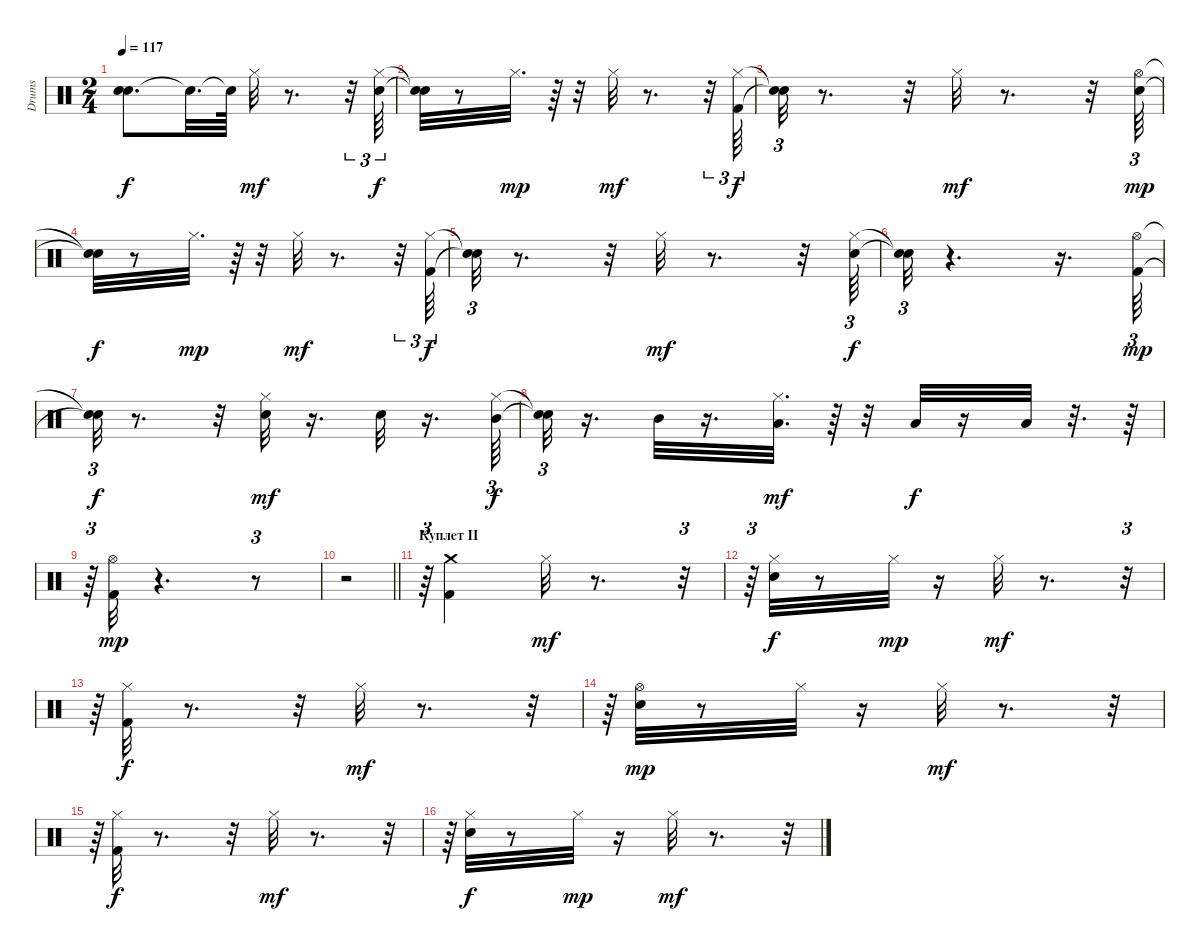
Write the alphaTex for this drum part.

\track ("Drums" "Drums") {instrument percussion}
\staff {score}
\articulation defaults
\ts (2 4)
\tempo 117
\clef neutral
\ks c
("Snare (hit)"{t} "Snare (hit)"{t}).8{d dy f} "Snare (hit)"{t}.32{d} "Snare (hit)"{t}.64 "Hi-Hat (closed)".32{dy mf} r.8{d} r.32{tu (3 2)} ("Electric Snare (hit)" "Hi-Hat (closed)").64{tu (3 2) dy f} |
("Snare (hit)"{t} "Snare (hit)"{t}).32 r.8 "Hi-Hat (closed)".32{d dy mp} r.64 r.32 "Hi-Hat (closed)".32{dy mf} r.8{d} r.32{tu (3 2)} ("Kick (hit) 2" "Hi-Hat (closed)").64{tu (3 2) dy f} |
("Snare (hit)"{t} "Snare (hit)"{t}).32{tu (3 2)} r.8{d} r.32 "Hi-Hat (closed)".32{dy mf} r.8{d} r.32 ("Electric Snare (hit)" "Hi-Hat (open)").64{tu (3 2) dy mp} |
("Snare (hit)"{t} "Snare (hit)"{t}).32{dy f} r.8 "Hi-Hat (closed)".32{d dy mp} r.64 r.32 "Hi-Hat (closed)".32{dy mf} r.8{d} r.32{tu (3 2)} ("Kick (hit) 2" "Hi-Hat (closed)").64{tu (3 2) dy f} |
("Snare (hit)"{t} "Snare (hit)"{t}).32{tu (3 2)} r.8{d} r.32 "Hi-Hat (closed)".32{dy mf} r.8{d} r.32 ("Electric Snare (hit)" "Hi-Hat (closed)").64{tu (3 2) dy f} |
("Snare (hit)"{t} "Snare (hit)"{t}).32{tu (3 2)} r.4{d} r.16{d} ("Kick (hit) 2" "Hi-Hat (open)").64{tu (3 2) dy mp} |
("Snare (hit)"{t} "Snare (hit)"{t}).32{tu (3 2) dy f} r.8{d} r.32 ("Electric Snare (hit)" "Hi-Hat (closed)").32{dy mf} r.16{d} "Electric Snare (hit)".32 r.16{d} ("Hi-Hat (closed)" "Mid Tom (hit)").64{tu (3 2) dy f} |
("Snare (hit)"{t} "Snare (hit)"{t}).32{tu (3 2)} r.16{d} "Mid Tom (hit)".32 r.16{d} ("Hi-Hat (closed)" "Low Tom (hit)").32{d dy mf} r.64 r.32 "Low Tom (hit)".32{dy f} r.16 "Low Tom (hit)".32 r.32{d} r.64 |
r.64{tu (3 2)} ("Kick (hit) 2" "Hi-Hat (open)").32{dy mp} r.4{d} r.8{tu (3 2)} |
\barLineRight lightlight
r.2 |
\section ("" "Куплет II")
r.64{tu (3 2)} ("Kick (hit) 2" "Crash medium (hit)").4 "Hi-Hat (closed)".32{dy mf} r.8{d} r.32{tu (3 2)} |
r.64{tu (3 2)} ("Electric Snare (hit)" "Hi-Hat (closed)").32{dy f} r.8 "Hi-Hat (closed)".32{dy mp} r.16 "Hi-Hat (closed)".32{dy mf} r.8{d} r.32{tu (3 2)} |
r.64{tu (3 2)} ("Kick (hit) 2" "Hi-Hat (closed)").32{dy f} r.8{d} r.32 "Hi-Hat (closed)".32{dy mf} r.8{d} r.32{tu (3 2)} |
r.64{tu (3 2)} ("Electric Snare (hit)" "Hi-Hat (open)").32{dy mp} r.8 "Hi-Hat (closed)".32 r.16 "Hi-Hat (closed)".32{dy mf} r.8{d} r.32{tu (3 2)} |
r.64{tu (3 2)} ("Kick (hit) 2" "Hi-Hat (closed)").32{dy f} r.8{d} r.32 "Hi-Hat (closed)".32{dy mf} r.8{d} r.32{tu (3 2)} |
r.64{tu (3 2)} ("Electric Snare (hit)" "Hi-Hat (closed)").32{dy f} r.8 "Hi-Hat (closed)".32{dy mp} r.16 "Hi-Hat (closed)".32{dy mf} r.8{d} r.32{tu (3 2)}
